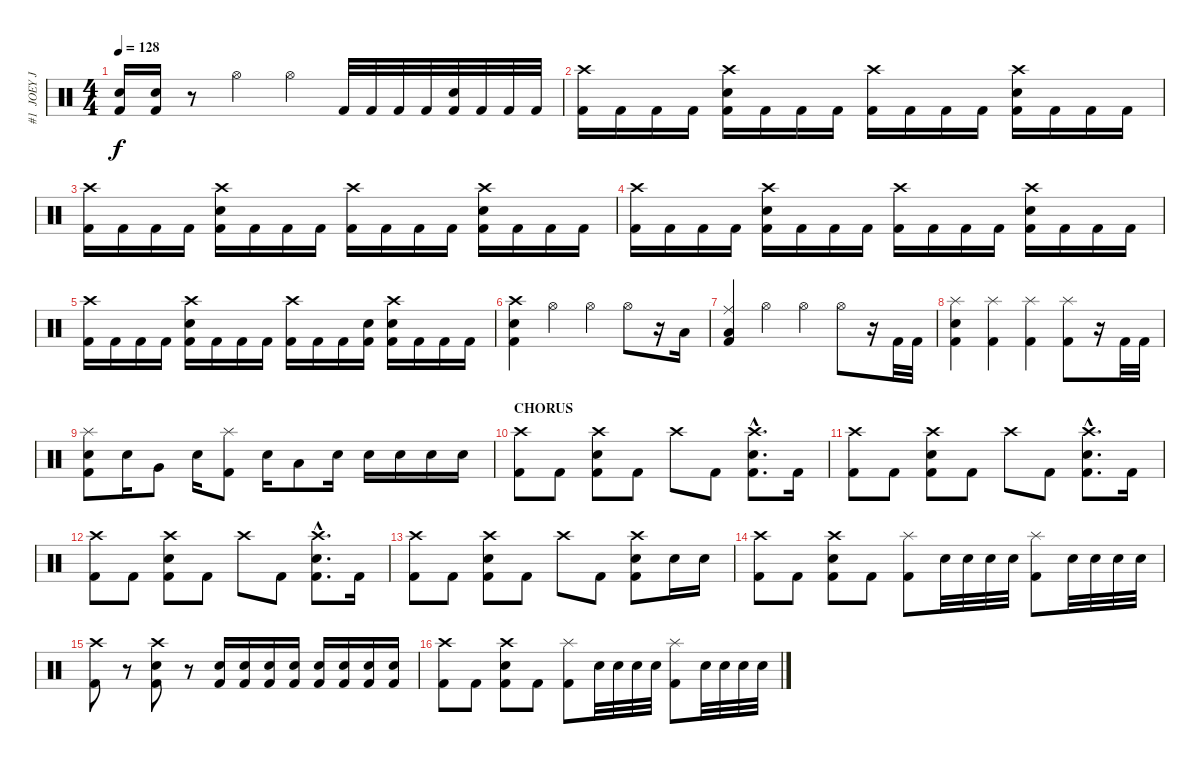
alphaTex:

\track ("#1  JOEY JORDISON" "#1  JOEY J") {instrument percussion}
\staff {score}
\articulation defaults
\ts (4 4)
\tempo 128
\clef neutral
\ks c
("Electric Snare (hit)" "Kick (hit) 2").16{dy f} ("Electric Snare (hit)" "Kick (hit) 2").16 r.8 "Hi-Hat (open)".4 "Hi-Hat (open)".4 "Kick (hit) 2".32 "Kick (hit) 2".32 "Kick (hit) 2".32 "Kick (hit) 2".32 ("Electric Snare (hit)" "Kick (hit) 2").32 "Kick (hit) 2".32 "Kick (hit) 2".32 "Kick (hit) 2".32 |
("Crash high (hit)" "Kick (hit) 2").16 "Kick (hit) 2".16 "Kick (hit) 2".16 "Kick (hit) 2".16 ("Crash high (hit)" "Electric Snare (hit)" "Kick (hit) 2").16 "Kick (hit) 2".16 "Kick (hit) 2".16 "Kick (hit) 2".16 ("Crash high (hit)" "Kick (hit) 2").16 "Kick (hit) 2".16 "Kick (hit) 2".16 "Kick (hit) 2".16 ("Crash high (hit)" "Electric Snare (hit)" "Kick (hit) 2").16 "Kick (hit) 2".16 "Kick (hit) 2".16 "Kick (hit) 2".16 |
("Crash high (hit)" "Kick (hit) 2").16 "Kick (hit) 2".16 "Kick (hit) 2".16 "Kick (hit) 2".16 ("Crash high (hit)" "Electric Snare (hit)" "Kick (hit) 2").16 "Kick (hit) 2".16 "Kick (hit) 2".16 "Kick (hit) 2".16 ("Crash high (hit)" "Kick (hit) 2").16 "Kick (hit) 2".16 "Kick (hit) 2".16 "Kick (hit) 2".16 ("Crash high (hit)" "Electric Snare (hit)" "Kick (hit) 2").16 "Kick (hit) 2".16 "Kick (hit) 2".16 "Kick (hit) 2".16 |
("Crash high (hit)" "Kick (hit) 2").16 "Kick (hit) 2".16 "Kick (hit) 2".16 "Kick (hit) 2".16 ("Crash high (hit)" "Electric Snare (hit)" "Kick (hit) 2").16 "Kick (hit) 2".16 "Kick (hit) 2".16 "Kick (hit) 2".16 ("Crash high (hit)" "Kick (hit) 2").16 "Kick (hit) 2".16 "Kick (hit) 2".16 "Kick (hit) 2".16 ("Crash high (hit)" "Electric Snare (hit)" "Kick (hit) 2").16 "Kick (hit) 2".16 "Kick (hit) 2".16 "Kick (hit) 2".16 |
("Crash high (hit)" "Kick (hit) 2").16 "Kick (hit) 2".16 "Kick (hit) 2".16 "Kick (hit) 2".16 ("Crash high (hit)" "Electric Snare (hit)" "Kick (hit) 2").16 "Kick (hit) 2".16 "Kick (hit) 2".16 "Kick (hit) 2".16 ("Crash high (hit)" "Kick (hit) 2").16 "Kick (hit) 2".16 "Kick (hit) 2".16 ("Electric Snare (hit)" "Kick (hit) 2").16 ("Crash high (hit)" "Electric Snare (hit)" "Kick (hit) 2").16 "Kick (hit) 2".16 "Kick (hit) 2".16 "Kick (hit) 2".16 |
\section ("" "")
("Crash high (hit)" "Electric Snare (hit)" "Kick (hit) 2").4 "Hi-Hat (open)".4 "Hi-Hat (open)".4 "Hi-Hat (open)".8 r.16 "Low Tom (hit)".16 |
("Ride (middle)" "Low Floor Tom (hit)" "Kick (hit) 2").4 "Hi-Hat (open)".4 "Hi-Hat (open)".4 "Hi-Hat (open)".8 r.16 "Kick (hit) 2".32 "Kick (hit) 2".32 |
("Splash (hit)" "Electric Snare (hit)" "Kick (hit) 2").4 ("Splash (hit)" "Kick (hit) 2").4 ("Splash (hit)" "Kick (hit) 2").4 ("Splash (hit)" "Kick (hit) 2").8 r.16 "Kick (hit) 2".32 "Kick (hit) 2".32 |
("Splash (hit)" "Electric Snare (hit)" "Kick (hit) 2").8 "Electric Snare (hit)".16 "Very Low Tom (hit)".8 "Electric Snare (hit)".16 ("Splash (hit)" "Kick (hit) 2").8 "Electric Snare (hit)".16 "Low Tom (hit)".8 "Electric Snare (hit)".16 "Electric Snare (hit)".16 "Electric Snare (hit)".16 "Electric Snare (hit)".16 "Electric Snare (hit)".16 |
\section ("" "CHORUS")
("Crash high (hit)" "Kick (hit) 2").8 "Kick (hit) 2".8 ("Crash high (hit)" "Electric Snare (hit)" "Kick (hit) 2").8 "Kick (hit) 2".8 "Crash high (hit)".8 "Kick (hit) 2".8 ("Crash high (hit)"{hac} "Electric Snare (hit)"{hac} "Kick (hit) 2"{hac}).8{d} "Kick (hit) 2".16 |
("Crash high (hit)" "Kick (hit) 2").8 "Kick (hit) 2".8 ("Crash high (hit)" "Electric Snare (hit)" "Kick (hit) 2").8 "Kick (hit) 2".8 "Crash high (hit)".8 "Kick (hit) 2".8 ("Crash high (hit)"{hac} "Electric Snare (hit)"{hac} "Kick (hit) 2"{hac}).8{d} "Kick (hit) 2".16 |
("Crash high (hit)" "Kick (hit) 2").8 "Kick (hit) 2".8 ("Crash high (hit)" "Electric Snare (hit)" "Kick (hit) 2").8 "Kick (hit) 2".8 "Crash high (hit)".8 "Kick (hit) 2".8 ("Crash high (hit)"{hac} "Electric Snare (hit)"{hac} "Kick (hit) 2"{hac}).8{d} "Kick (hit) 2".16 |
("Crash high (hit)" "Kick (hit) 2").8 "Kick (hit) 2".8 ("Crash high (hit)" "Electric Snare (hit)" "Kick (hit) 2").8 "Kick (hit) 2".8 "Crash high (hit)".8 "Kick (hit) 2".8 ("Crash high (hit)" "Electric Snare (hit)" "Kick (hit) 2").8 "Electric Snare (hit)".16 "Electric Snare (hit)".16 |
("Crash high (hit)" "Kick (hit) 2").8 "Kick (hit) 2".8 ("Crash high (hit)" "Electric Snare (hit)" "Kick (hit) 2").8 "Kick (hit) 2".8 ("Splash (hit)" "Kick (hit) 2").8 "Electric Snare (hit)".32 "Electric Snare (hit)".32 "Electric Snare (hit)".32 "Electric Snare (hit)".32 ("Splash (hit)" "Kick (hit) 2").8 "Electric Snare (hit)".32 "Electric Snare (hit)".32 "Electric Snare (hit)".32 "Electric Snare (hit)".32 |
("Crash high (hit)" "Kick (hit) 2").8 r.8 ("Crash high (hit)" "Electric Snare (hit)" "Kick (hit) 2").8 r.8 ("Electric Snare (hit)" "Kick (hit) 2").16 ("Electric Snare (hit)" "Kick (hit) 2").16 ("Electric Snare (hit)" "Kick (hit) 2").16 ("Electric Snare (hit)" "Kick (hit) 2").16 ("Electric Snare (hit)" "Kick (hit) 2").16 ("Electric Snare (hit)" "Kick (hit) 2").16 ("Electric Snare (hit)" "Kick (hit) 2").16 ("Electric Snare (hit)" "Kick (hit) 2").16 |
("Crash high (hit)" "Kick (hit) 2").8 "Kick (hit) 2".8 ("Crash high (hit)" "Electric Snare (hit)" "Kick (hit) 2").8 "Kick (hit) 2".8 ("Splash (hit)" "Kick (hit) 2").8 "Electric Snare (hit)".32 "Electric Snare (hit)".32 "Electric Snare (hit)".32 "Electric Snare (hit)".32 ("Splash (hit)" "Kick (hit) 2").8 "Electric Snare (hit)".32 "Electric Snare (hit)".32 "Electric Snare (hit)".32 "Electric Snare (hit)".32
